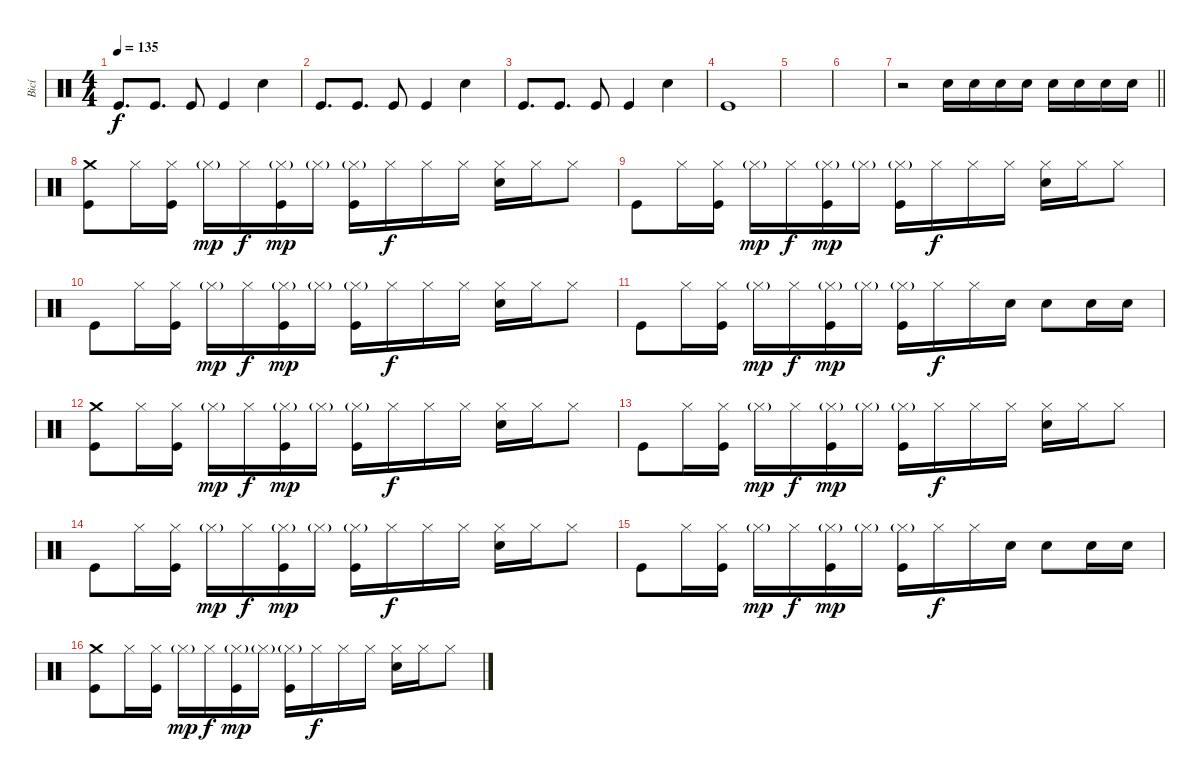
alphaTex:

\track ("Bicí" "Bicí") {instrument percussion}
\staff {score}
\articulation defaults
\ts (4 4)
\tempo 135
\clef neutral
\ks c "Kick (hit)".8{d dy f} "Kick (hit)".8{d} "Kick (hit)".8 "Kick (hit)".4 "Electric Snare (hit)".4
|
"Kick (hit)".8{d} "Kick (hit)".8{d} "Kick (hit)".8 "Kick (hit)".4 "Electric Snare (hit)".4 |
"Kick (hit)".8{d} "Kick (hit)".8{d} "Kick (hit)".8 "Kick (hit)".4 "Electric Snare (hit)".4 |
"Kick (hit)".1 |
|
|
\barLineRight lightlight
r.2 "Electric Snare (hit)".16 "Electric Snare (hit)".16 "Electric Snare (hit)".16 "Electric Snare (hit)".16 "Electric Snare (hit)".16 "Electric Snare (hit)".16 "Electric Snare (hit)".16 "Electric Snare (hit)".16 |
("Crash medium (hit)" "Kick (hit)").8 "Hi-Hat (closed)".16 ("Hi-Hat (closed)" "Kick (hit)").16 "Hi-Hat (closed)"{g}.16{dy mp} "Hi-Hat (closed)".16{dy f} ("Hi-Hat (closed)"{g} "Kick (hit)").16{dy mp} "Hi-Hat (closed)"{g}.16 ("Hi-Hat (closed)"{g} "Kick (hit)").16 "Hi-Hat (closed)".16{dy f} "Hi-Hat (closed)".16 "Hi-Hat (closed)".16 ("Hi-Hat (closed)" "Electric Snare (hit)").16 "Hi-Hat (closed)".16 "Hi-Hat (closed)".8 |
"Kick (hit)".8 "Hi-Hat (closed)".16 ("Hi-Hat (closed)" "Kick (hit)").16 "Hi-Hat (closed)"{g}.16{dy mp} "Hi-Hat (closed)".16{dy f} ("Hi-Hat (closed)"{g} "Kick (hit)").16{dy mp} "Hi-Hat (closed)"{g}.16 ("Hi-Hat (closed)"{g} "Kick (hit)").16 "Hi-Hat (closed)".16{dy f} "Hi-Hat (closed)".16 "Hi-Hat (closed)".16 ("Hi-Hat (closed)" "Electric Snare (hit)").16 "Hi-Hat (closed)".16 "Hi-Hat (closed)".8 |
"Kick (hit)".8 "Hi-Hat (closed)".16 ("Hi-Hat (closed)" "Kick (hit)").16 "Hi-Hat (closed)"{g}.16{dy mp} "Hi-Hat (closed)".16{dy f} ("Hi-Hat (closed)"{g} "Kick (hit)").16{dy mp} "Hi-Hat (closed)"{g}.16 ("Hi-Hat (closed)"{g} "Kick (hit)").16 "Hi-Hat (closed)".16{dy f} "Hi-Hat (closed)".16 "Hi-Hat (closed)".16 ("Hi-Hat (closed)" "Electric Snare (hit)").16 "Hi-Hat (closed)".16 "Hi-Hat (closed)".8 |
"Kick (hit)".8 "Hi-Hat (closed)".16 ("Hi-Hat (closed)" "Kick (hit)").16 "Hi-Hat (closed)"{g}.16{dy mp} "Hi-Hat (closed)".16{dy f} ("Hi-Hat (closed)"{g} "Kick (hit)").16{dy mp} "Hi-Hat (closed)"{g}.16 ("Hi-Hat (closed)"{g} "Kick (hit)").16 "Hi-Hat (closed)".16{dy f} "Hi-Hat (closed)".16 "Electric Snare (hit)".16 "Electric Snare (hit)".8 "Electric Snare (hit)".16 "Electric Snare (hit)".16 |
("Crash medium (hit)" "Kick (hit)").8 "Hi-Hat (closed)".16 ("Hi-Hat (closed)" "Kick (hit)").16 "Hi-Hat (closed)"{g}.16{dy mp} "Hi-Hat (closed)".16{dy f} ("Hi-Hat (closed)"{g} "Kick (hit)").16{dy mp} "Hi-Hat (closed)"{g}.16 ("Hi-Hat (closed)"{g} "Kick (hit)").16 "Hi-Hat (closed)".16{dy f} "Hi-Hat (closed)".16 "Hi-Hat (closed)".16 ("Hi-Hat (closed)" "Electric Snare (hit)").16 "Hi-Hat (closed)".16 "Hi-Hat (closed)".8 |
"Kick (hit)".8 "Hi-Hat (closed)".16 ("Hi-Hat (closed)" "Kick (hit)").16 "Hi-Hat (closed)"{g}.16{dy mp} "Hi-Hat (closed)".16{dy f} ("Hi-Hat (closed)"{g} "Kick (hit)").16{dy mp} "Hi-Hat (closed)"{g}.16 ("Hi-Hat (closed)"{g} "Kick (hit)").16 "Hi-Hat (closed)".16{dy f} "Hi-Hat (closed)".16 "Hi-Hat (closed)".16 ("Hi-Hat (closed)" "Electric Snare (hit)").16 "Hi-Hat (closed)".16 "Hi-Hat (closed)".8 |
"Kick (hit)".8 "Hi-Hat (closed)".16 ("Hi-Hat (closed)" "Kick (hit)").16 "Hi-Hat (closed)"{g}.16{dy mp} "Hi-Hat (closed)".16{dy f} ("Hi-Hat (closed)"{g} "Kick (hit)").16{dy mp} "Hi-Hat (closed)"{g}.16 ("Hi-Hat (closed)"{g} "Kick (hit)").16 "Hi-Hat (closed)".16{dy f} "Hi-Hat (closed)".16 "Hi-Hat (closed)".16 ("Hi-Hat (closed)" "Electric Snare (hit)").16 "Hi-Hat (closed)".16 "Hi-Hat (closed)".8 |
"Kick (hit)".8 "Hi-Hat (closed)".16 ("Hi-Hat (closed)" "Kick (hit)").16 "Hi-Hat (closed)"{g}.16{dy mp} "Hi-Hat (closed)".16{dy f} ("Hi-Hat (closed)"{g} "Kick (hit)").16{dy mp} "Hi-Hat (closed)"{g}.16 ("Hi-Hat (closed)"{g} "Kick (hit)").16 "Hi-Hat (closed)".16{dy f} "Hi-Hat (closed)".16 "Electric Snare (hit)".16 "Electric Snare (hit)".8 "Electric Snare (hit)".16 "Electric Snare (hit)".16 |
("Crash medium (hit)" "Kick (hit)").8 "Hi-Hat (closed)".16 ("Hi-Hat (closed)" "Kick (hit)").16 "Hi-Hat (closed)"{g}.16{dy mp} "Hi-Hat (closed)".16{dy f} ("Hi-Hat (closed)"{g} "Kick (hit)").16{dy mp} "Hi-Hat (closed)"{g}.16 ("Hi-Hat (closed)"{g} "Kick (hit)").16 "Hi-Hat (closed)".16{dy f} "Hi-Hat (closed)".16 "Hi-Hat (closed)".16 ("Hi-Hat (closed)" "Electric Snare (hit)").16 "Hi-Hat (closed)".16 "Hi-Hat (closed)".8
